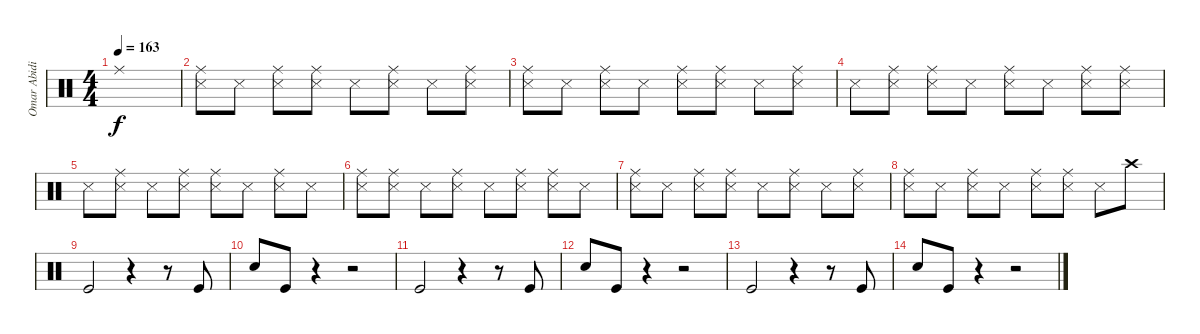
\track ("Omar Abidi" "Omar Abidi") {instrument percussion}
\staff {score}
\articulation defaults
\ts (4 4)
\tempo 163
\clef neutral
\ks c "Ride (middle)".1{dy f}
|
("Snare (side stick) 3" "Ride (middle)").8{volume 6} "Snare (side stick) 3".8 ("Snare (side stick) 3" "Ride (middle)").8 ("Snare (side stick) 3" "Ride (middle)").8 "Snare (side stick) 3".8 ("Snare (side stick) 3" "Ride (middle)").8 "Snare (side stick) 3".8 ("Snare (side stick) 3" "Ride (middle)").8 |
("Snare (side stick) 3" "Ride (middle)").8{volume 6} "Snare (side stick) 3".8 ("Snare (side stick) 3" "Ride (middle)").8 "Snare (side stick) 3".8 ("Snare (side stick) 3" "Ride (middle)").8 ("Snare (side stick) 3" "Ride (middle)").8 "Snare (side stick) 3".8 ("Snare (side stick) 3" "Ride (middle)").8 |
"Snare (side stick) 3".8{volume 6} ("Snare (side stick) 3" "Ride (middle)").8 ("Snare (side stick) 3" "Ride (middle)").8 "Snare (side stick) 3".8 ("Snare (side stick) 3" "Ride (middle)").8 "Snare (side stick) 3".8 ("Snare (side stick) 3" "Ride (middle)").8 ("Snare (side stick) 3" "Ride (middle)").8 |
"Snare (side stick) 3".8{volume 6} ("Snare (side stick) 3" "Ride (middle)").8 "Snare (side stick) 3".8 ("Snare (side stick) 3" "Ride (middle)").8 ("Snare (side stick) 3" "Ride (middle)").8 "Snare (side stick) 3".8 ("Snare (side stick) 3" "Ride (middle)").8 "Snare (side stick) 3".8 |
("Snare (side stick) 3" "Ride (middle)").8{volume 6} ("Snare (side stick) 3" "Ride (middle)").8 "Snare (side stick) 3".8 ("Snare (side stick) 3" "Ride (middle)").8 "Snare (side stick) 3".8 ("Snare (side stick) 3" "Ride (middle)").8 ("Snare (side stick) 3" "Ride (middle)").8 "Snare (side stick) 3".8 |
("Snare (side stick) 3" "Ride (middle)").8{volume 6} "Snare (side stick) 3".8 ("Snare (side stick) 3" "Ride (middle)").8 ("Snare (side stick) 3" "Ride (middle)").8 "Snare (side stick) 3".8 ("Snare (side stick) 3" "Ride (middle)").8 "Snare (side stick) 3".8 ("Snare (side stick) 3" "Ride (middle)").8 |
("Snare (side stick) 3" "Ride (middle)").8{volume 6} "Snare (side stick) 3".8 ("Snare (side stick) 3" "Ride (middle)").8 "Snare (side stick) 3".8 ("Snare (side stick) 3" "Ride (middle)").8 ("Snare (side stick) 3" "Ride (middle)").8 "Snare (side stick) 3".8 "Crash high (hit)".8 |
"Kick (hit)".2{volume 16} r.4 r.8 "Kick (hit)".8 |
"Snare (hit) 2".8 "Kick (hit)".8 r.4 r.2 |
"Kick (hit)".2{volume 16} r.4 r.8 "Kick (hit)".8 |
"Snare (hit) 2".8 "Kick (hit)".8 r.4 r.2 |
"Kick (hit)".2{volume 16} r.4 r.8 "Kick (hit)".8 |
"Snare (hit) 2".8 "Kick (hit)".8 r.4 r.2
